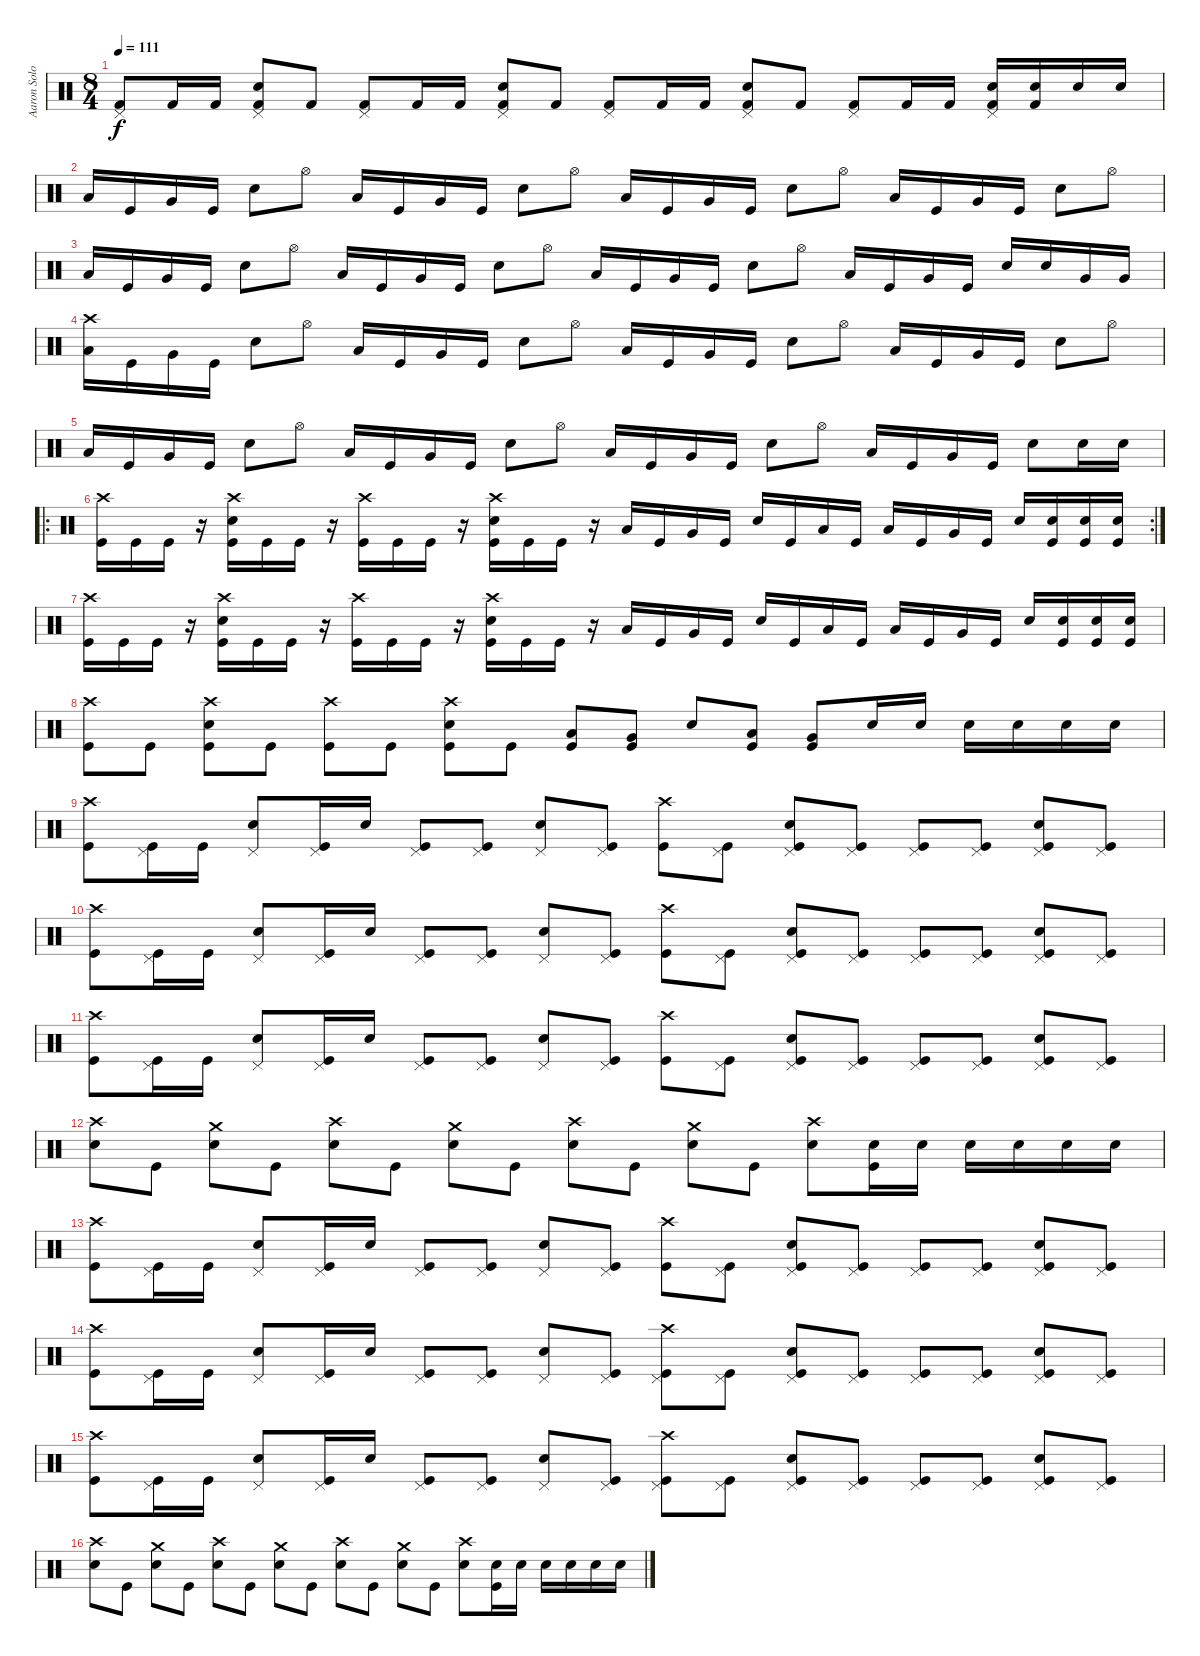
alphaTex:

\track ("Aaron Solowoniuk(Drums)" "Aaron Solo") {instrument percussion}
\staff {score}
\articulation defaults
\ts (8 4)
\tempo 111
\clef neutral
\ks c
("Pedal Hi-Hat (hit)" "Kick (hit) 2").8{dy f} "Kick (hit) 2".16 "Kick (hit) 2".16 ("Pedal Hi-Hat (hit)" "Electric Snare (hit)" "Kick (hit) 2").8 "Kick (hit) 2".8 ("Pedal Hi-Hat (hit)" "Kick (hit) 2").8 "Kick (hit) 2".16 "Kick (hit) 2".16 ("Pedal Hi-Hat (hit)" "Electric Snare (hit)" "Kick (hit) 2").8 "Kick (hit) 2".8 ("Pedal Hi-Hat (hit)" "Kick (hit) 2").8 "Kick (hit) 2".16 "Kick (hit) 2".16 ("Pedal Hi-Hat (hit)" "Electric Snare (hit)" "Kick (hit) 2").8 "Kick (hit) 2".8 ("Pedal Hi-Hat (hit)" "Kick (hit) 2").8 "Kick (hit) 2".16 "Kick (hit) 2".16 ("Pedal Hi-Hat (hit)" "Electric Snare (hit)" "Kick (hit) 2").16 ("Electric Snare (hit)" "Kick (hit) 2").16 "Electric Snare (hit)".16 "Electric Snare (hit)".16 |
"Low Floor Tom (hit)".16 "Kick (hit)".16 "Very Low Tom (hit)".16 "Kick (hit)".16 "Electric Snare (hit)".8 "Hi-Hat (open)".8 "Low Floor Tom (hit)".16 "Kick (hit)".16 "Very Low Tom (hit)".16 "Kick (hit)".16 "Electric Snare (hit)".8 "Hi-Hat (open)".8 "Low Floor Tom (hit)".16 "Kick (hit)".16 "Very Low Tom (hit)".16 "Kick (hit)".16 "Electric Snare (hit)".8 "Hi-Hat (open)".8 "Low Floor Tom (hit)".16 "Kick (hit)".16 "Very Low Tom (hit)".16 "Kick (hit)".16 "Electric Snare (hit)".8 "Hi-Hat (open)".8 |
"Low Floor Tom (hit)".16 "Kick (hit)".16 "Very Low Tom (hit)".16 "Kick (hit)".16 "Electric Snare (hit)".8 "Hi-Hat (open)".8 "Low Floor Tom (hit)".16 "Kick (hit)".16 "Very Low Tom (hit)".16 "Kick (hit)".16 "Electric Snare (hit)".8 "Hi-Hat (open)".8 "Low Floor Tom (hit)".16 "Kick (hit)".16 "Very Low Tom (hit)".16 "Kick (hit)".16 "Electric Snare (hit)".8 "Hi-Hat (open)".8 "Low Floor Tom (hit)".16 "Kick (hit)".16 "Very Low Tom (hit)".16 "Kick (hit)".16 "Electric Snare (hit)".16 "Electric Snare (hit)".16 "Very Low Tom (hit)".16 "Very Low Tom (hit)".16 |
("Crash high (hit)" "Low Floor Tom (hit)").16 "Kick (hit)".16 "Very Low Tom (hit)".16 "Kick (hit)".16 "Electric Snare (hit)".8 "Hi-Hat (open)".8 "Low Floor Tom (hit)".16 "Kick (hit)".16 "Very Low Tom (hit)".16 "Kick (hit)".16 "Electric Snare (hit)".8 "Hi-Hat (open)".8 "Low Floor Tom (hit)".16 "Kick (hit)".16 "Very Low Tom (hit)".16 "Kick (hit)".16 "Electric Snare (hit)".8 "Hi-Hat (open)".8 "Low Floor Tom (hit)".16 "Kick (hit)".16 "Very Low Tom (hit)".16 "Kick (hit)".16 "Electric Snare (hit)".8 "Hi-Hat (open)".8 |
"Low Floor Tom (hit)".16 "Kick (hit)".16 "Very Low Tom (hit)".16 "Kick (hit)".16 "Electric Snare (hit)".8 "Hi-Hat (open)".8 "Low Floor Tom (hit)".16 "Kick (hit)".16 "Very Low Tom (hit)".16 "Kick (hit)".16 "Electric Snare (hit)".8 "Hi-Hat (open)".8 "Low Floor Tom (hit)".16 "Kick (hit)".16 "Very Low Tom (hit)".16 "Kick (hit)".16 "Electric Snare (hit)".8 "Hi-Hat (open)".8 "Low Floor Tom (hit)".16 "Kick (hit)".16 "Very Low Tom (hit)".16 "Kick (hit)".16 "Electric Snare (hit)".8 "Electric Snare (hit)".16 "Electric Snare (hit)".16 |
\ro
\rc 2
("Crash high (hit)" "Kick (hit)").16 "Kick (hit)".16 "Kick (hit)".16 r.16 ("Crash high (hit)" "Kick (hit)" "Electric Snare (hit)").16 "Kick (hit)".16 "Kick (hit)".16 r.16 ("Crash high (hit)" "Kick (hit)").16 "Kick (hit)".16 "Kick (hit)".16 r.16 ("Crash high (hit)" "Kick (hit)" "Electric Snare (hit)").16 "Kick (hit)".16 "Kick (hit)".16 r.16 "Low Floor Tom (hit)".16 "Kick (hit)".16 "Very Low Tom (hit)".16 "Kick (hit)".16 "Electric Snare (hit)".16 "Kick (hit)".16 "Low Floor Tom (hit)".16 "Kick (hit)".16 "Low Floor Tom (hit)".16 "Kick (hit)".16 "Very Low Tom (hit)".16 "Kick (hit)".16 "Electric Snare (hit)".16 ("Kick (hit)" "Electric Snare (hit)").16 ("Kick (hit)" "Electric Snare (hit)").16 ("Kick (hit)" "Electric Snare (hit)").16 |
("Crash high (hit)" "Kick (hit)").16 "Kick (hit)".16 "Kick (hit)".16 r.16 ("Crash high (hit)" "Kick (hit)" "Electric Snare (hit)").16 "Kick (hit)".16 "Kick (hit)".16 r.16 ("Crash high (hit)" "Kick (hit)").16 "Kick (hit)".16 "Kick (hit)".16 r.16 ("Crash high (hit)" "Kick (hit)" "Electric Snare (hit)").16 "Kick (hit)".16 "Kick (hit)".16 r.16 "Low Floor Tom (hit)".16 "Kick (hit)".16 "Very Low Tom (hit)".16 "Kick (hit)".16 "Electric Snare (hit)".16 "Kick (hit)".16 "Low Floor Tom (hit)".16 "Kick (hit)".16 "Low Floor Tom (hit)".16 "Kick (hit)".16 "Very Low Tom (hit)".16 "Kick (hit)".16 "Electric Snare (hit)".16 ("Kick (hit)" "Electric Snare (hit)").16 ("Kick (hit)" "Electric Snare (hit)").16 ("Kick (hit)" "Electric Snare (hit)").16 |
("Crash high (hit)" "Kick (hit)").8 "Kick (hit)".8 ("Electric Snare (hit)" "Crash high (hit)" "Kick (hit)").8 "Kick (hit)".8 ("Crash high (hit)" "Kick (hit)").8 "Kick (hit)".8 ("Electric Snare (hit)" "Crash high (hit)" "Kick (hit)").8 "Kick (hit)".8 ("Low Floor Tom (hit)" "Kick (hit)").8 ("Very Low Tom (hit)" "Kick (hit)").8 "Electric Snare (hit)".8 ("Low Floor Tom (hit)" "Kick (hit)").8 ("Very Low Tom (hit)" "Kick (hit)").8 "Electric Snare (hit)".16 "Electric Snare (hit)".16 "Electric Snare (hit)".16 "Electric Snare (hit)".16 "Electric Snare (hit)".16 "Electric Snare (hit)".16 |
("Crash high (hit)" "Kick (hit)").8 ("Pedal Hi-Hat (hit)" "Kick (hit)").16 "Kick (hit)".16 ("Electric Snare (hit)" "Pedal Hi-Hat (hit)").8 ("Pedal Hi-Hat (hit)" "Kick (hit)").16 "Electric Snare (hit)".16 ("Pedal Hi-Hat (hit)" "Kick (hit)").8 ("Pedal Hi-Hat (hit)" "Kick (hit)").8 ("Pedal Hi-Hat (hit)" "Electric Snare (hit)").8 ("Pedal Hi-Hat (hit)" "Kick (hit)").8 ("Kick (hit)" "Crash high (hit)").8 ("Pedal Hi-Hat (hit)" "Kick (hit)").8 ("Pedal Hi-Hat (hit)" "Electric Snare (hit)" "Kick (hit)").8 ("Pedal Hi-Hat (hit)" "Kick (hit)").8 ("Pedal Hi-Hat (hit)" "Kick (hit)").8 ("Pedal Hi-Hat (hit)" "Kick (hit)").8 ("Pedal Hi-Hat (hit)" "Electric Snare (hit)" "Kick (hit)").8 ("Pedal Hi-Hat (hit)" "Kick (hit)").8 |
("Crash high (hit)" "Kick (hit)").8 ("Pedal Hi-Hat (hit)" "Kick (hit)").16 "Kick (hit)".16 ("Electric Snare (hit)" "Pedal Hi-Hat (hit)").8 ("Pedal Hi-Hat (hit)" "Kick (hit)").16 "Electric Snare (hit)".16 ("Pedal Hi-Hat (hit)" "Kick (hit)").8 ("Pedal Hi-Hat (hit)" "Kick (hit)").8 ("Pedal Hi-Hat (hit)" "Electric Snare (hit)").8 ("Pedal Hi-Hat (hit)" "Kick (hit)").8 ("Kick (hit)" "Crash high (hit)").8 ("Pedal Hi-Hat (hit)" "Kick (hit)").8 ("Pedal Hi-Hat (hit)" "Electric Snare (hit)" "Kick (hit)").8 ("Pedal Hi-Hat (hit)" "Kick (hit)").8 ("Pedal Hi-Hat (hit)" "Kick (hit)").8 ("Pedal Hi-Hat (hit)" "Kick (hit)").8 ("Pedal Hi-Hat (hit)" "Electric Snare (hit)" "Kick (hit)").8 ("Pedal Hi-Hat (hit)" "Kick (hit)").8 |
("Crash high (hit)" "Kick (hit)").8 ("Pedal Hi-Hat (hit)" "Kick (hit)").16 "Kick (hit)".16 ("Electric Snare (hit)" "Pedal Hi-Hat (hit)").8 ("Pedal Hi-Hat (hit)" "Kick (hit)").16 "Electric Snare (hit)".16 ("Pedal Hi-Hat (hit)" "Kick (hit)").8 ("Pedal Hi-Hat (hit)" "Kick (hit)").8 ("Pedal Hi-Hat (hit)" "Electric Snare (hit)").8 ("Pedal Hi-Hat (hit)" "Kick (hit)").8 ("Kick (hit)" "Crash high (hit)").8 ("Pedal Hi-Hat (hit)" "Kick (hit)").8 ("Pedal Hi-Hat (hit)" "Electric Snare (hit)" "Kick (hit)").8 ("Pedal Hi-Hat (hit)" "Kick (hit)").8 ("Pedal Hi-Hat (hit)" "Kick (hit)").8 ("Pedal Hi-Hat (hit)" "Kick (hit)").8 ("Pedal Hi-Hat (hit)" "Electric Snare (hit)" "Kick (hit)").8 ("Pedal Hi-Hat (hit)" "Kick (hit)").8 |
("Crash high (hit)" "Electric Snare (hit)").8 "Kick (hit)".8 ("Crash medium (hit)" "Electric Snare (hit)").8 "Kick (hit)".8 ("Crash high (hit)" "Electric Snare (hit)").8 "Kick (hit)".8 ("Crash medium (hit)" "Electric Snare (hit)").8 "Kick (hit)".8 ("Crash high (hit)" "Electric Snare (hit)").8 "Kick (hit)".8 ("Crash medium (hit)" "Electric Snare (hit)").8 "Kick (hit)".8 ("Crash high (hit)" "Electric Snare (hit)").8 ("Electric Snare (hit)" "Kick (hit)").16 "Electric Snare (hit)".16 "Electric Snare (hit)".16 "Electric Snare (hit)".16 "Electric Snare (hit)".16 "Electric Snare (hit)".16 |
("Crash high (hit)" "Kick (hit)").8 ("Pedal Hi-Hat (hit)" "Kick (hit)").16 "Kick (hit)".16 ("Electric Snare (hit)" "Pedal Hi-Hat (hit)").8 ("Pedal Hi-Hat (hit)" "Kick (hit)").16 "Electric Snare (hit)".16 ("Pedal Hi-Hat (hit)" "Kick (hit)").8 ("Pedal Hi-Hat (hit)" "Kick (hit)").8 ("Pedal Hi-Hat (hit)" "Electric Snare (hit)").8 ("Pedal Hi-Hat (hit)" "Kick (hit)").8 ("Kick (hit)" "Crash high (hit)").8 ("Pedal Hi-Hat (hit)" "Kick (hit)").8 ("Pedal Hi-Hat (hit)" "Electric Snare (hit)" "Kick (hit)").8 ("Pedal Hi-Hat (hit)" "Kick (hit)").8 ("Pedal Hi-Hat (hit)" "Kick (hit)").8 ("Pedal Hi-Hat (hit)" "Kick (hit)").8 ("Pedal Hi-Hat (hit)" "Electric Snare (hit)" "Kick (hit)").8 ("Pedal Hi-Hat (hit)" "Kick (hit)").8 |
("Crash high (hit)" "Kick (hit)").8 ("Pedal Hi-Hat (hit)" "Kick (hit)").16 "Kick (hit)".16 ("Electric Snare (hit)" "Pedal Hi-Hat (hit)").8 ("Pedal Hi-Hat (hit)" "Kick (hit)").16 "Electric Snare (hit)".16 ("Pedal Hi-Hat (hit)" "Kick (hit)").8 ("Pedal Hi-Hat (hit)" "Kick (hit)").8 ("Pedal Hi-Hat (hit)" "Electric Snare (hit)").8 ("Pedal Hi-Hat (hit)" "Kick (hit)").8 ("Pedal Hi-Hat (hit)" "Kick (hit)" "Crash high (hit)").8 ("Pedal Hi-Hat (hit)" "Kick (hit)").8 ("Pedal Hi-Hat (hit)" "Electric Snare (hit)" "Kick (hit)").8 ("Pedal Hi-Hat (hit)" "Kick (hit)").8 ("Pedal Hi-Hat (hit)" "Kick (hit)").8 ("Pedal Hi-Hat (hit)" "Kick (hit)").8 ("Pedal Hi-Hat (hit)" "Electric Snare (hit)" "Kick (hit)").8 ("Pedal Hi-Hat (hit)" "Kick (hit)").8 |
("Crash high (hit)" "Kick (hit)").8 ("Pedal Hi-Hat (hit)" "Kick (hit)").16 "Kick (hit)".16 ("Electric Snare (hit)" "Pedal Hi-Hat (hit)").8 ("Pedal Hi-Hat (hit)" "Kick (hit)").16 "Electric Snare (hit)".16 ("Pedal Hi-Hat (hit)" "Kick (hit)").8 ("Pedal Hi-Hat (hit)" "Kick (hit)").8 ("Pedal Hi-Hat (hit)" "Electric Snare (hit)").8 ("Pedal Hi-Hat (hit)" "Kick (hit)").8 ("Pedal Hi-Hat (hit)" "Kick (hit)" "Crash high (hit)").8 ("Pedal Hi-Hat (hit)" "Kick (hit)").8 ("Pedal Hi-Hat (hit)" "Electric Snare (hit)" "Kick (hit)").8 ("Pedal Hi-Hat (hit)" "Kick (hit)").8 ("Pedal Hi-Hat (hit)" "Kick (hit)").8 ("Pedal Hi-Hat (hit)" "Kick (hit)").8 ("Pedal Hi-Hat (hit)" "Electric Snare (hit)" "Kick (hit)").8 ("Pedal Hi-Hat (hit)" "Kick (hit)").8 |
("Crash high (hit)" "Electric Snare (hit)").8 "Kick (hit)".8 ("Crash medium (hit)" "Electric Snare (hit)").8 "Kick (hit)".8 ("Crash high (hit)" "Electric Snare (hit)").8 "Kick (hit)".8 ("Crash medium (hit)" "Electric Snare (hit)").8 "Kick (hit)".8 ("Crash high (hit)" "Electric Snare (hit)").8 "Kick (hit)".8 ("Crash medium (hit)" "Electric Snare (hit)").8 "Kick (hit)".8 ("Crash high (hit)" "Electric Snare (hit)").8 ("Electric Snare (hit)" "Kick (hit)").16 "Electric Snare (hit)".16 "Electric Snare (hit)".16 "Electric Snare (hit)".16 "Electric Snare (hit)".16 "Electric Snare (hit)".16
